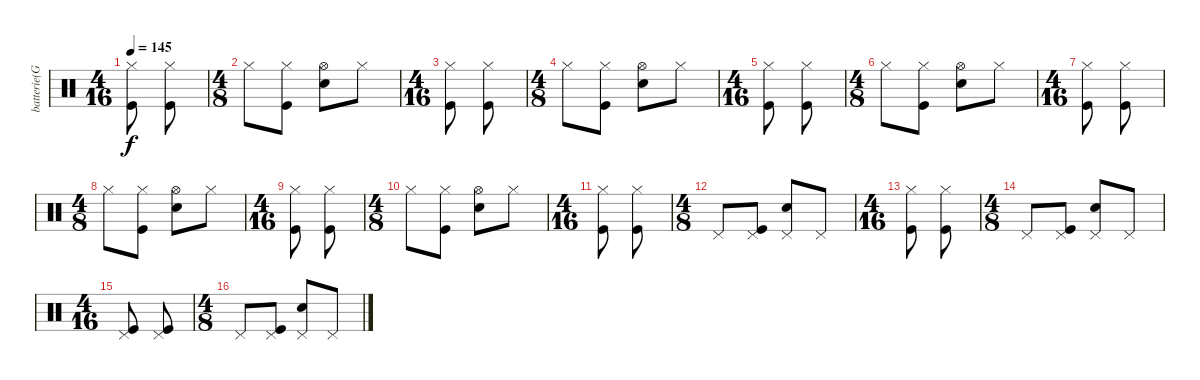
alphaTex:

\track ("batterie(Granberg)" "batterie(G") {instrument percussion}
\staff {score}
\articulation defaults
\ts (4 16)
\tempo 145
\clef neutral
\ks c
("Hi-Hat (closed)" "Kick (hit)").8{dy f} ("Hi-Hat (closed)" "Kick (hit)").8 |
\ts (4 8)
"Hi-Hat (closed)".8 ("Hi-Hat (closed)" "Kick (hit)").8 ("Hi-Hat (open)" "Snare (hit) 2").8 "Hi-Hat (closed)".8 |
\ts (4 16)
("Hi-Hat (closed)" "Kick (hit)").8 ("Hi-Hat (closed)" "Kick (hit)").8 |
\ts (4 8)
"Hi-Hat (closed)".8 ("Hi-Hat (closed)" "Kick (hit)").8 ("Hi-Hat (open)" "Snare (hit) 2").8 "Hi-Hat (closed)".8 |
\ts (4 16)
("Hi-Hat (closed)" "Kick (hit)").8 ("Hi-Hat (closed)" "Kick (hit)").8 |
\ts (4 8)
"Hi-Hat (closed)".8 ("Hi-Hat (closed)" "Kick (hit)").8 ("Hi-Hat (open)" "Snare (hit) 2").8 "Hi-Hat (closed)".8 |
\ts (4 16)
("Hi-Hat (closed)" "Kick (hit)").8 ("Hi-Hat (closed)" "Kick (hit)").8 |
\ts (4 8)
"Hi-Hat (closed)".8 ("Hi-Hat (closed)" "Kick (hit)").8 ("Hi-Hat (open)" "Snare (hit) 2").8 "Hi-Hat (closed)".8 |
\ts (4 16)
("Hi-Hat (closed)" "Kick (hit)").8 ("Hi-Hat (closed)" "Kick (hit)").8 |
\ts (4 8)
"Hi-Hat (closed)".8 ("Hi-Hat (closed)" "Kick (hit)").8 ("Hi-Hat (open)" "Snare (hit) 2").8 "Hi-Hat (closed)".8 |
\ts (4 16)
("Hi-Hat (closed)" "Kick (hit)").8 ("Hi-Hat (closed)" "Kick (hit)").8 |
\ts (4 8)
"Pedal Hi-Hat (hit)".8 ("Pedal Hi-Hat (hit)" "Kick (hit)").8 ("Pedal Hi-Hat (hit)" "Snare (hit) 2").8 "Pedal Hi-Hat (hit)".8 |
\ts (4 16)
("Hi-Hat (closed)" "Kick (hit)").8 ("Hi-Hat (closed)" "Kick (hit)").8 |
\ts (4 8)
"Pedal Hi-Hat (hit)".8 ("Pedal Hi-Hat (hit)" "Kick (hit)").8 ("Pedal Hi-Hat (hit)" "Snare (hit) 2").8 "Pedal Hi-Hat (hit)".8 |
\ts (4 16)
("Pedal Hi-Hat (hit)" "Kick (hit)").8 ("Pedal Hi-Hat (hit)" "Kick (hit)").8 |
\ts (4 8)
"Pedal Hi-Hat (hit)".8 ("Pedal Hi-Hat (hit)" "Kick (hit)").8 ("Pedal Hi-Hat (hit)" "Snare (hit) 2").8 "Pedal Hi-Hat (hit)".8
